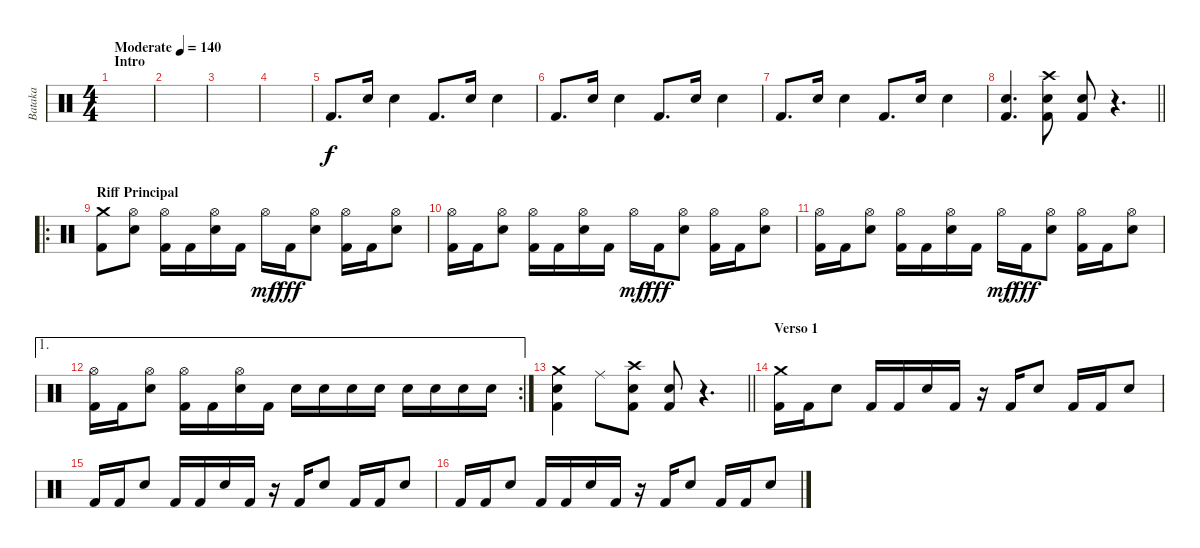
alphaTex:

\track ("Bataka" "Bataka") {instrument percussion}
\staff {score}
\articulation defaults
\ts (4 4)
\section ("" "Intro")
\tempo (140 "Moderate")
\clef neutral
\ks c
|
|
|
|
"Kick (hit) 2".8{d} "Electric Snare (hit)".16 "Electric Snare (hit)".4 "Kick (hit) 2".8{d} "Electric Snare (hit)".16 "Electric Snare (hit)".4 |
"Kick (hit) 2".8{d} "Electric Snare (hit)".16 "Electric Snare (hit)".4 "Kick (hit) 2".8{d} "Electric Snare (hit)".16 "Electric Snare (hit)".4 |
"Kick (hit) 2".8{d} "Electric Snare (hit)".16 "Electric Snare (hit)".4 "Kick (hit) 2".8{d} "Electric Snare (hit)".16 "Electric Snare (hit)".4 |
\barLineRight lightlight
("Electric Snare (hit)" "Kick (hit) 2").4{d} ("Crash high (hit)" "Electric Snare (hit)" "Kick (hit) 2").8 ("Electric Snare (hit)" "Kick (hit) 2").8 r.4{d} |
\ro
\section ("" "Riff Principal")
("Crash medium (hit)" "Kick (hit) 2").8 ("Hi-Hat (open)" "Electric Snare (hit)").8 ("Hi-Hat (open)" "Kick (hit) 2").16 "Kick (hit) 2".16 ("Hi-Hat (open)" "Electric Snare (hit)").16 "Kick (hit) 2".16 "Hi-Hat (open)".16{dy mf} "Kick (hit) 2".16{dy fff} ("Hi-Hat (open)" "Electric Snare (hit)").8 ("Hi-Hat (open)" "Kick (hit) 2").16 "Kick (hit) 2".16 ("Hi-Hat (open)" "Electric Snare (hit)").8 |
("Hi-Hat (open)" "Kick (hit) 2").16 "Kick (hit) 2".16 ("Hi-Hat (open)" "Electric Snare (hit)").8 ("Hi-Hat (open)" "Kick (hit) 2").16 "Kick (hit) 2".16 ("Hi-Hat (open)" "Electric Snare (hit)").16 "Kick (hit) 2".16 "Hi-Hat (open)".16{dy mf} "Kick (hit) 2".16{dy fff} ("Hi-Hat (open)" "Electric Snare (hit)").8 ("Hi-Hat (open)" "Kick (hit) 2").16 "Kick (hit) 2".16 ("Hi-Hat (open)" "Electric Snare (hit)").8 |
("Hi-Hat (open)" "Kick (hit) 2").16 "Kick (hit) 2".16 ("Hi-Hat (open)" "Electric Snare (hit)").8 ("Hi-Hat (open)" "Kick (hit) 2").16 "Kick (hit) 2".16 ("Hi-Hat (open)" "Electric Snare (hit)").16 "Kick (hit) 2".16 "Hi-Hat (open)".16{dy mf} "Kick (hit) 2".16{dy fff} ("Hi-Hat (open)" "Electric Snare (hit)").8 ("Hi-Hat (open)" "Kick (hit) 2").16 "Kick (hit) 2".16 ("Hi-Hat (open)" "Electric Snare (hit)").8 |
\ae 1
\rc 2
("Hi-Hat (open)" "Kick (hit) 2").16 "Kick (hit) 2".16 ("Hi-Hat (open)" "Electric Snare (hit)").8 ("Hi-Hat (open)" "Kick (hit) 2").16 "Kick (hit) 2".16 ("Hi-Hat (open)" "Electric Snare (hit)").16 "Kick (hit) 2".16 "Electric Snare (hit)".16 "Electric Snare (hit)".16 "Electric Snare (hit)".16 "Electric Snare (hit)".16 "Electric Snare (hit)".16 "Electric Snare (hit)".16 "Electric Snare (hit)".16 "Electric Snare (hit)".16 |
\barLineRight lightlight
("Crash medium (hit)" "Electric Snare (hit)" "Kick (hit) 2").4 "Ride (middle)".8 ("Crash high (hit)" "Electric Snare (hit)" "Kick (hit) 2").8 ("Electric Snare (hit)" "Kick (hit) 2").8 r.4{d} |
\section ("" "Verso 1")
("Crash medium (hit)" "Kick (hit) 2").16 "Kick (hit) 2".16 "Electric Snare (hit)".8 "Kick (hit) 2".16 "Kick (hit) 2".16 "Electric Snare (hit)".16 "Kick (hit) 2".16 r.16 "Kick (hit) 2".16 "Electric Snare (hit)".8 "Kick (hit) 2".16 "Kick (hit) 2".16 "Electric Snare (hit)".8 |
"Kick (hit) 2".16 "Kick (hit) 2".16 "Electric Snare (hit)".8 "Kick (hit) 2".16 "Kick (hit) 2".16 "Electric Snare (hit)".16 "Kick (hit) 2".16 r.16 "Kick (hit) 2".16 "Electric Snare (hit)".8 "Kick (hit) 2".16 "Kick (hit) 2".16 "Electric Snare (hit)".8 |
"Kick (hit) 2".16 "Kick (hit) 2".16 "Electric Snare (hit)".8 "Kick (hit) 2".16 "Kick (hit) 2".16 "Electric Snare (hit)".16 "Kick (hit) 2".16 r.16 "Kick (hit) 2".16 "Electric Snare (hit)".8 "Kick (hit) 2".16 "Kick (hit) 2".16 "Electric Snare (hit)".8
